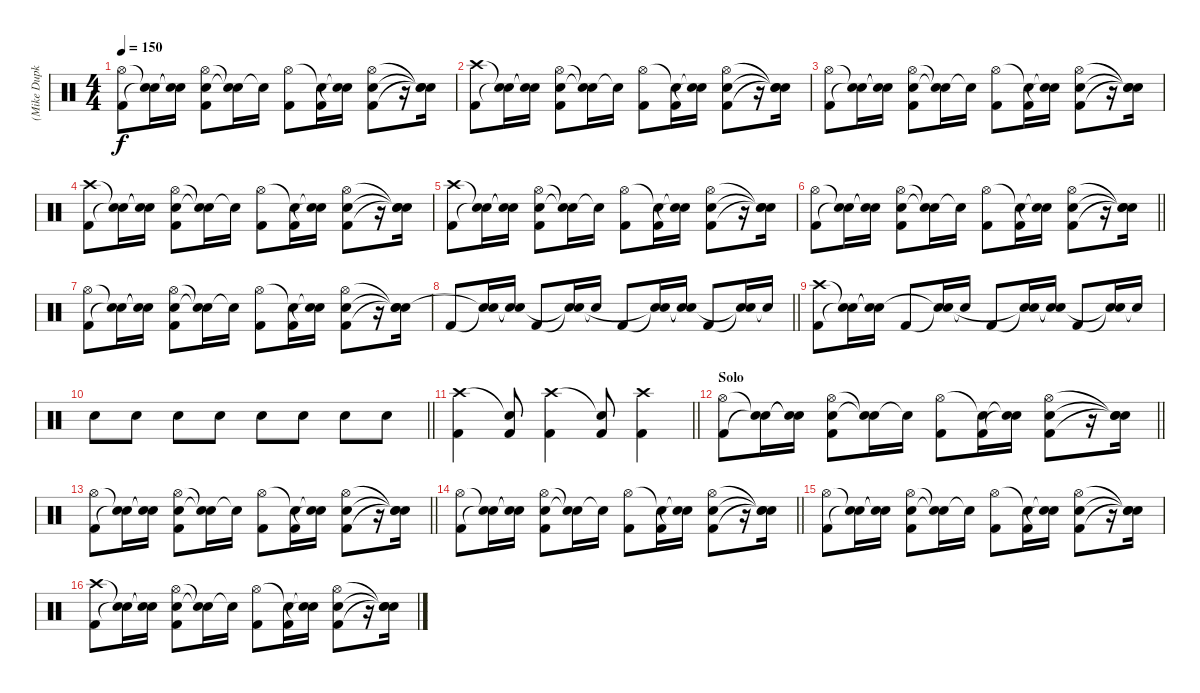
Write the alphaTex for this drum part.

\track ("(Mike Dupke) Drums" "(Mike Dupk") {instrument percussion}
\staff {score}
\articulation defaults
\ts (4 4)
\tempo 150
\clef neutral
\ks c
("Hi-Hat (open)" "Kick (hit) 2").8{dy f} ("Snare (hit)"{t} "Snare (hit)"{t}).16 ("Snare (hit)"{t} "Snare (hit)"{t}).16 ("Hi-Hat (open)" "Snare (hit) 2" "Kick (hit) 2").8 ("Snare (hit)"{t} "Snare (hit)"{t}).16 "Snare (hit)"{t}.16 ("Hi-Hat (open)" "Kick (hit) 2").8 ("Snare (hit)"{t} "Kick (hit) 2").16 ("Snare (hit)"{t} "Snare (hit)"{t}).16 ("Hi-Hat (open)" "Snare (hit) 2" "Kick (hit) 2").8 r.16 ("Snare (hit)"{t} "Snare (hit)"{t} "Snare (hit)"{t}).16 |
("Crash high (hit)" "Kick (hit) 2").8 ("Snare (hit)"{t} "Snare (hit)"{t}).16 ("Snare (hit)"{t} "Snare (hit)"{t}).16 ("Hi-Hat (open)" "Snare (hit) 2" "Kick (hit) 2").8 ("Snare (hit)"{t} "Snare (hit)"{t}).16 "Snare (hit)"{t}.16 ("Hi-Hat (open)" "Kick (hit) 2").8 ("Snare (hit)"{t} "Kick (hit) 2").16 ("Snare (hit)"{t} "Snare (hit)"{t}).16 ("Hi-Hat (open)" "Snare (hit) 2" "Kick (hit) 2").8 r.16 ("Snare (hit)"{t} "Snare (hit)"{t} "Snare (hit)"{t}).16 |
("Hi-Hat (open)" "Kick (hit) 2").8 ("Snare (hit)"{t} "Snare (hit)"{t}).16 ("Snare (hit)"{t} "Snare (hit)"{t}).16 ("Hi-Hat (open)" "Snare (hit) 2" "Kick (hit) 2").8 ("Snare (hit)"{t} "Snare (hit)"{t}).16 "Snare (hit)"{t}.16 ("Hi-Hat (open)" "Kick (hit) 2").8 ("Snare (hit)"{t} "Kick (hit) 2").16 ("Snare (hit)"{t} "Snare (hit)"{t}).16 ("Hi-Hat (open)" "Snare (hit) 2" "Kick (hit) 2").8 r.16 ("Snare (hit)"{t} "Snare (hit)"{t} "Snare (hit)"{t}).16 |
("Crash high (hit)" "Kick (hit) 2").8 ("Snare (hit)"{t} "Snare (hit)"{t}).16 ("Snare (hit)"{t} "Snare (hit)"{t}).16 ("Hi-Hat (open)" "Snare (hit) 2" "Kick (hit) 2").8 ("Snare (hit)"{t} "Snare (hit)"{t}).16 "Snare (hit)"{t}.16 ("Hi-Hat (open)" "Kick (hit) 2").8 ("Snare (hit)"{t} "Kick (hit) 2").16 ("Snare (hit)"{t} "Snare (hit)"{t}).16 ("Hi-Hat (open)" "Snare (hit) 2" "Kick (hit) 2").8 r.16 ("Snare (hit)"{t} "Snare (hit)"{t} "Snare (hit)"{t}).16 |
("Crash high (hit)" "Kick (hit) 2").8 ("Snare (hit)"{t} "Snare (hit)"{t}).16 ("Snare (hit)"{t} "Snare (hit)"{t}).16 ("Hi-Hat (open)" "Snare (hit) 2" "Kick (hit) 2").8 ("Snare (hit)"{t} "Snare (hit)"{t}).16 "Snare (hit)"{t}.16 ("Hi-Hat (open)" "Kick (hit) 2").8 ("Snare (hit)"{t} "Kick (hit) 2").16 ("Snare (hit)"{t} "Snare (hit)"{t}).16 ("Hi-Hat (open)" "Snare (hit) 2" "Kick (hit) 2").8 r.16 ("Snare (hit)"{t} "Snare (hit)"{t} "Snare (hit)"{t}).16 |
\barLineRight lightlight
("Hi-Hat (open)" "Kick (hit) 2").8 ("Snare (hit)"{t} "Snare (hit)"{t}).16 ("Snare (hit)"{t} "Snare (hit)"{t}).16 ("Hi-Hat (open)" "Snare (hit) 2" "Kick (hit) 2").8 ("Snare (hit)"{t} "Snare (hit)"{t}).16 "Snare (hit)"{t}.16 ("Hi-Hat (open)" "Kick (hit) 2").8 ("Snare (hit)"{t} "Kick (hit) 2").16 ("Snare (hit)"{t} "Snare (hit)"{t}).16 ("Hi-Hat (open)" "Snare (hit) 2" "Kick (hit) 2").8 r.16 ("Snare (hit)"{t} "Snare (hit)"{t} "Snare (hit)"{t}).16 |
("Hi-Hat (open)" "Kick (hit) 2").8 ("Snare (hit)"{t} "Snare (hit)"{t}).16 ("Snare (hit)"{t} "Snare (hit)"{t}).16 ("Hi-Hat (open)" "Snare (hit) 2" "Kick (hit) 2").8 ("Snare (hit)"{t} "Snare (hit)"{t}).16 "Snare (hit)"{t}.16 ("Hi-Hat (open)" "Kick (hit) 2").8 ("Snare (hit)"{t} "Kick (hit) 2").16 ("Snare (hit)"{t} "Snare (hit)"{t}).16 ("Hi-Hat (open)" "Snare (hit) 2" "Kick (hit) 2").8 r.16 ("Snare (hit)"{t} "Snare (hit)"{t} "Snare (hit)"{t}).16 |
\barLineRight lightlight "Kick (hit) 2".8
("Snare (hit)"{t} "Snare (hit)"{t}).16 ("Snare (hit)"{t} "Snare (hit)"{t}).16 "Kick (hit) 2".8 ("Snare (hit)"{t} "Snare (hit)"{t}).16 "Snare (hit)"{t}.16 "Kick (hit) 2".8 ("Snare (hit)"{t} "Snare (hit)"{t}).16 ("Snare (hit)"{t} "Snare (hit)"{t}).16 "Kick (hit) 2".8 ("Snare (hit)"{t} "Snare (hit)"{t}).16 "Snare (hit)"{t}.16 |
("Crash high (hit)" "Kick (hit) 2").8 ("Snare (hit)"{t} "Snare (hit)"{t}).16 ("Snare (hit)"{t} "Snare (hit)"{t}).16 "Kick (hit) 2".8 ("Snare (hit)"{t} "Snare (hit)"{t}).16 "Snare (hit)"{t}.16 "Kick (hit) 2".8 ("Snare (hit)"{t} "Snare (hit)"{t}).16 ("Snare (hit)"{t} "Snare (hit)"{t}).16 "Kick (hit) 2".8 ("Snare (hit)"{t} "Snare (hit)"{t}).16 "Snare (hit)"{t}.16 |
\barLineRight lightlight "Snare (hit) 2".8 "Snare (hit) 2".8 "Snare (hit) 2".8 "Snare (hit) 2".8 "Snare (hit) 2".8 "Snare (hit) 2".8 "Snare (hit) 2".8 "Snare (hit) 2".8
|
\barLineRight lightlight
("Crash high (hit)" "Kick (hit) 2").4 ("Snare (hit)"{t} "Kick (hit) 2").8 ("Crash high (hit)" "Kick (hit) 2").4 ("Snare (hit)"{t} "Kick (hit) 2").8 ("Crash high (hit)" "Kick (hit) 2").4 |
\section ("" "Solo")
\barLineRight lightlight
("Hi-Hat (open)" "Kick (hit) 2").8 ("Snare (hit)"{t} "Snare (hit)"{t}).16 ("Snare (hit)"{t} "Snare (hit)"{t}).16 ("Hi-Hat (open)" "Snare (hit) 2" "Kick (hit) 2").8 ("Snare (hit)"{t} "Snare (hit)"{t}).16 "Snare (hit)"{t}.16 ("Hi-Hat (open)" "Kick (hit) 2").8 ("Snare (hit)"{t} "Kick (hit) 2").16 ("Snare (hit)"{t} "Snare (hit)"{t}).16 ("Hi-Hat (open)" "Snare (hit) 2" "Kick (hit) 2").8 r.16 ("Snare (hit)"{t} "Snare (hit)"{t} "Snare (hit)"{t}).16 |
\section ("" "")
\barLineRight lightlight
("Hi-Hat (open)" "Kick (hit) 2").8 ("Snare (hit)"{t} "Snare (hit)"{t}).16 ("Snare (hit)"{t} "Snare (hit)"{t}).16 ("Hi-Hat (open)" "Snare (hit) 2" "Kick (hit) 2").8 ("Snare (hit)"{t} "Snare (hit)"{t}).16 "Snare (hit)"{t}.16 ("Hi-Hat (open)" "Kick (hit) 2").8 ("Snare (hit)"{t} "Kick (hit) 2").16 ("Snare (hit)"{t} "Snare (hit)"{t}).16 ("Hi-Hat (open)" "Snare (hit) 2" "Kick (hit) 2").8 r.16 ("Snare (hit)"{t} "Snare (hit)"{t} "Snare (hit)"{t}).16 |
\section ("" "")
\barLineRight lightlight
("Hi-Hat (open)" "Kick (hit) 2").8 ("Snare (hit)"{t} "Snare (hit)"{t}).16 ("Snare (hit)"{t} "Snare (hit)"{t}).16 ("Hi-Hat (open)" "Snare (hit) 2" "Kick (hit) 2").8 ("Snare (hit)"{t} "Snare (hit)"{t}).16 "Snare (hit)"{t}.16 ("Hi-Hat (open)" "Kick (hit) 2").8 ("Snare (hit)"{t} "Kick (hit) 2").16 ("Snare (hit)"{t} "Snare (hit)"{t}).16 ("Hi-Hat (open)" "Snare (hit) 2" "Kick (hit) 2").8 r.16 ("Snare (hit)"{t} "Snare (hit)"{t} "Snare (hit)"{t}).16 |
("Hi-Hat (open)" "Kick (hit) 2").8 ("Snare (hit)"{t} "Snare (hit)"{t}).16 ("Snare (hit)"{t} "Snare (hit)"{t}).16 ("Hi-Hat (open)" "Snare (hit) 2" "Kick (hit) 2").8 ("Snare (hit)"{t} "Snare (hit)"{t}).16 "Snare (hit)"{t}.16 ("Hi-Hat (open)" "Kick (hit) 2").8 ("Snare (hit)"{t} "Kick (hit) 2").16 ("Snare (hit)"{t} "Snare (hit)"{t}).16 ("Hi-Hat (open)" "Snare (hit) 2" "Kick (hit) 2").8 r.16 ("Snare (hit)"{t} "Snare (hit)"{t} "Snare (hit)"{t}).16 |
("Crash high (hit)" "Kick (hit) 2").8 ("Snare (hit)"{t} "Snare (hit)"{t}).16 ("Snare (hit)"{t} "Snare (hit)"{t}).16 ("Hi-Hat (open)" "Snare (hit) 2" "Kick (hit) 2").8 ("Snare (hit)"{t} "Snare (hit)"{t}).16 "Snare (hit)"{t}.16 ("Hi-Hat (open)" "Kick (hit) 2").8 ("Snare (hit)"{t} "Kick (hit) 2").16 ("Snare (hit)"{t} "Snare (hit)"{t}).16 ("Hi-Hat (open)" "Snare (hit) 2" "Kick (hit) 2").8 r.16 ("Snare (hit)"{t} "Snare (hit)"{t} "Snare (hit)"{t}).16
